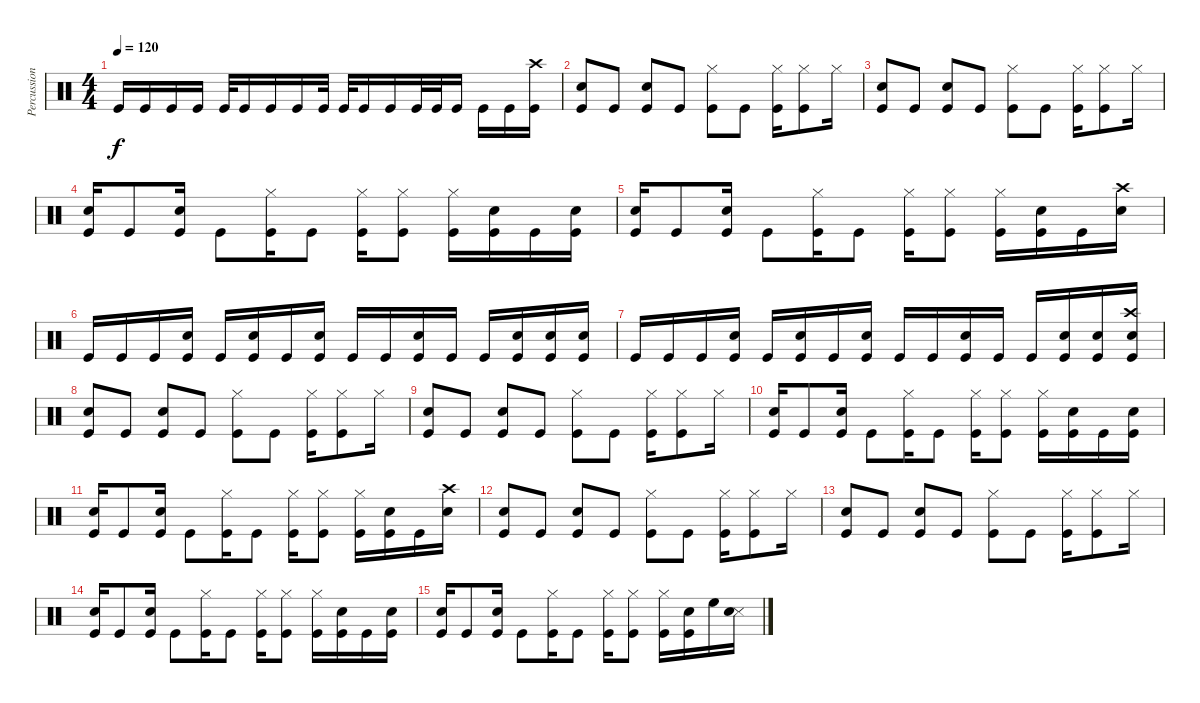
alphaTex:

\track ("Percussion" "Percussion") {instrument percussion}
\staff {score}
\articulation defaults
\ts (4 4)
\tempo 120
\clef neutral
\ks c "Kick (hit)".16{dy f} "Kick (hit)".16 "Kick (hit)".16 "Kick (hit)".16 "Kick (hit)".32 "Kick (hit)".16 "Kick (hit)".16 "Kick (hit)".16 "Kick (hit)".32 "Kick (hit)".32 "Kick (hit)".16 "Kick (hit)".16 "Kick (hit)".32 "Kick (hit)".32 "Kick (hit)".16 "Kick (hit)".16 "Kick (hit)".16
("Kick (hit)" "Crash high (hit)").16 |
("Kick (hit)" "Snare (hit) 2").8 "Kick (hit)".8 ("Kick (hit)" "Snare (hit) 2").8 "Kick (hit)".8 ("Kick (hit)" "Hi-Hat (closed)").8 "Kick (hit)".8 ("Kick (hit)" "Hi-Hat (closed)").16 ("Kick (hit)" "Hi-Hat (closed)").8 "Hi-Hat (closed)".16 |
("Kick (hit)" "Snare (hit) 2").8 "Kick (hit)".8 ("Kick (hit)" "Snare (hit) 2").8 "Kick (hit)".8 ("Kick (hit)" "Hi-Hat (closed)").8 "Kick (hit)".8 ("Kick (hit)" "Hi-Hat (closed)").16 ("Kick (hit)" "Hi-Hat (closed)").8 "Hi-Hat (closed)".16 |
("Kick (hit)" "Snare (hit) 2").16 "Kick (hit)".8 ("Kick (hit)" "Snare (hit) 2").16 "Kick (hit)".8 ("Kick (hit)" "Hi-Hat (closed)").16 "Kick (hit)".8 ("Kick (hit)" "Hi-Hat (closed)").16 ("Kick (hit)" "Hi-Hat (closed)").8 ("Kick (hit)" "Hi-Hat (closed)").16 ("Kick (hit)" "Snare (hit) 2").16 "Kick (hit)".16 ("Kick (hit)" "Snare (hit) 2").16 |
("Kick (hit)" "Snare (hit) 2").16 "Kick (hit)".8 ("Kick (hit)" "Snare (hit) 2").16 "Kick (hit)".8 ("Kick (hit)" "Hi-Hat (closed)").16 "Kick (hit)".8 ("Kick (hit)" "Hi-Hat (closed)").16 ("Kick (hit)" "Hi-Hat (closed)").8 ("Kick (hit)" "Hi-Hat (closed)").16 ("Kick (hit)" "Snare (hit) 2").16 "Kick (hit)".16 ("Crash high (hit)" "Snare (hit) 2").16 |
"Kick (hit)".16 "Kick (hit)".16 "Kick (hit)".16 ("Snare (hit) 2" "Kick (hit)").16 "Kick (hit)".16 ("Snare (hit) 2" "Kick (hit)").16 "Kick (hit)".16 ("Snare (hit) 2" "Kick (hit)").16 "Kick (hit)".16 "Kick (hit)".16 ("Snare (hit) 2" "Kick (hit)").16 "Kick (hit)".16 "Kick (hit)".16 ("Snare (hit) 2" "Kick (hit)").16 ("Snare (hit) 2" "Kick (hit)").16 ("Snare (hit) 2" "Kick (hit)").16 |
"Kick (hit)".16 "Kick (hit)".16 "Kick (hit)".16 ("Snare (hit) 2" "Kick (hit)").16 "Kick (hit)".16 ("Snare (hit) 2" "Kick (hit)").16 "Kick (hit)".16 ("Snare (hit) 2" "Kick (hit)").16 "Kick (hit)".16 "Kick (hit)".16 ("Snare (hit) 2" "Kick (hit)").16 "Kick (hit)".16 "Kick (hit)".16 ("Snare (hit) 2" "Kick (hit)").16 ("Snare (hit) 2" "Kick (hit)").16 ("Crash high (hit)" "Snare (hit) 2" "Kick (hit)").16 |
("Kick (hit)" "Snare (hit) 2").8 "Kick (hit)".8 ("Kick (hit)" "Snare (hit) 2").8 "Kick (hit)".8 ("Kick (hit)" "Hi-Hat (closed)").8 "Kick (hit)".8 ("Kick (hit)" "Hi-Hat (closed)").16 ("Kick (hit)" "Hi-Hat (closed)").8 "Hi-Hat (closed)".16 |
("Kick (hit)" "Snare (hit) 2").8 "Kick (hit)".8 ("Kick (hit)" "Snare (hit) 2").8 "Kick (hit)".8 ("Kick (hit)" "Hi-Hat (closed)").8 "Kick (hit)".8 ("Kick (hit)" "Hi-Hat (closed)").16 ("Kick (hit)" "Hi-Hat (closed)").8 "Hi-Hat (closed)".16 |
("Kick (hit)" "Snare (hit) 2").16 "Kick (hit)".8 ("Kick (hit)" "Snare (hit) 2").16 "Kick (hit)".8 ("Kick (hit)" "Hi-Hat (closed)").16 "Kick (hit)".8 ("Kick (hit)" "Hi-Hat (closed)").16 ("Kick (hit)" "Hi-Hat (closed)").8 ("Kick (hit)" "Hi-Hat (closed)").16 ("Kick (hit)" "Snare (hit) 2").16 "Kick (hit)".16 ("Kick (hit)" "Snare (hit) 2").16 |
("Kick (hit)" "Snare (hit) 2").16 "Kick (hit)".8 ("Kick (hit)" "Snare (hit) 2").16 "Kick (hit)".8 ("Kick (hit)" "Hi-Hat (closed)").16 "Kick (hit)".8 ("Kick (hit)" "Hi-Hat (closed)").16 ("Kick (hit)" "Hi-Hat (closed)").8 ("Kick (hit)" "Hi-Hat (closed)").16 ("Kick (hit)" "Snare (hit) 2").16 "Kick (hit)".16 ("Crash high (hit)" "Snare (hit) 2").16 |
("Kick (hit)" "Snare (hit) 2").8 "Kick (hit)".8 ("Kick (hit)" "Snare (hit) 2").8 "Kick (hit)".8 ("Kick (hit)" "Hi-Hat (closed)").8 "Kick (hit)".8 ("Kick (hit)" "Hi-Hat (closed)").16 ("Kick (hit)" "Hi-Hat (closed)").8 "Hi-Hat (closed)".16 |
("Kick (hit)" "Snare (hit) 2").8 "Kick (hit)".8 ("Kick (hit)" "Snare (hit) 2").8 "Kick (hit)".8 ("Kick (hit)" "Hi-Hat (closed)").8 "Kick (hit)".8 ("Kick (hit)" "Hi-Hat (closed)").16 ("Kick (hit)" "Hi-Hat (closed)").8 "Hi-Hat (closed)".16 |
("Kick (hit)" "Snare (hit) 2").16 "Kick (hit)".8 ("Kick (hit)" "Snare (hit) 2").16 "Kick (hit)".8 ("Kick (hit)" "Hi-Hat (closed)").16 "Kick (hit)".8 ("Kick (hit)" "Hi-Hat (closed)").16 ("Kick (hit)" "Hi-Hat (closed)").8 ("Kick (hit)" "Hi-Hat (closed)").16 ("Kick (hit)" "Snare (hit) 2").16 "Kick (hit)".16 ("Kick (hit)" "Snare (hit) 2").16 |
("Kick (hit)" "Snare (hit) 2").16 "Kick (hit)".8 ("Kick (hit)" "Snare (hit) 2").16 "Kick (hit)".8 ("Kick (hit)" "Hi-Hat (closed)").16 "Kick (hit)".8 ("Kick (hit)" "Hi-Hat (closed)").16 ("Kick (hit)" "Hi-Hat (closed)").8 ("Kick (hit)" "Hi-Hat (closed)").16 ("Kick (hit)" "Snare (hit) 2").16 "High Floor Tom (hit)".16 ("Snare (side stick) 3" "Snare (hit) 2").16
